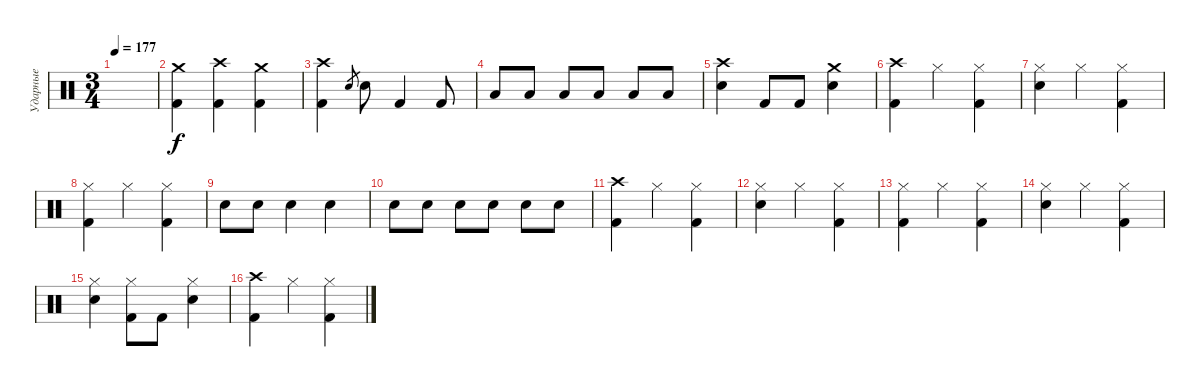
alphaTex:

\track ("Ударные" "Ударные") {instrument percussion}
\staff {score}
\articulation defaults
\ts (3 4)
\tempo 177
\clef neutral
\ks c
|
("Crash medium (hit)" "Kick (hit) 2").4 ("Crash high (hit)" "Kick (hit) 2").4 ("Crash medium (hit)" "Kick (hit) 2").4 |
("Crash high (hit)" "Kick (hit) 2").4 "Snare (hit) 2".8{gr} "Snare (hit) 2".8 "Kick (hit) 2".4 "Kick (hit) 2".8 |
"Low Tom (hit)".8 "Low Tom (hit)".8 "Low Tom (hit)".8 "Low Tom (hit)".8 "Low Tom (hit)".8 "Low Tom (hit)".8 |
("Crash high (hit)" "Snare (hit) 2").4 "Kick (hit) 2".8 "Kick (hit) 2".8 ("Crash medium (hit)" "Snare (hit) 2").4 |
("Crash high (hit)" "Kick (hit) 2").4 "Hi-Hat (closed)".4 ("Hi-Hat (closed)" "Kick (hit) 2").4 |
("Hi-Hat (closed)" "Snare (hit) 2").4 "Hi-Hat (closed)".4 ("Hi-Hat (closed)" "Kick (hit) 2").4 |
("Hi-Hat (closed)" "Kick (hit) 2").4 "Hi-Hat (closed)".4 ("Hi-Hat (closed)" "Kick (hit) 2").4 |
"Snare (hit) 2".8 "Snare (hit) 2".8 "Snare (hit) 2".4 "Snare (hit) 2".4 |
"Snare (hit) 2".8 "Snare (hit) 2".8 "Snare (hit) 2".8 "Snare (hit) 2".8 "Snare (hit) 2".8 "Snare (hit) 2".8 |
("Crash high (hit)" "Kick (hit) 2").4 "Hi-Hat (closed)".4 ("Hi-Hat (closed)" "Kick (hit) 2").4 |
("Hi-Hat (closed)" "Snare (hit) 2").4 "Hi-Hat (closed)".4 ("Hi-Hat (closed)" "Kick (hit) 2").4 |
("Hi-Hat (closed)" "Kick (hit) 2").4 "Hi-Hat (closed)".4 ("Hi-Hat (closed)" "Kick (hit) 2").4 |
("Hi-Hat (closed)" "Snare (hit) 2").4 "Hi-Hat (closed)".4 ("Hi-Hat (closed)" "Kick (hit) 2").4 |
("Hi-Hat (closed)" "Snare (hit) 2").4 ("Hi-Hat (closed)" "Kick (hit) 2").8 "Kick (hit) 2".8 ("Hi-Hat (closed)" "Snare (hit) 2").4 |
("Crash high (hit)" "Kick (hit) 2").4 "Hi-Hat (closed)".4 ("Hi-Hat (closed)" "Kick (hit) 2").4
